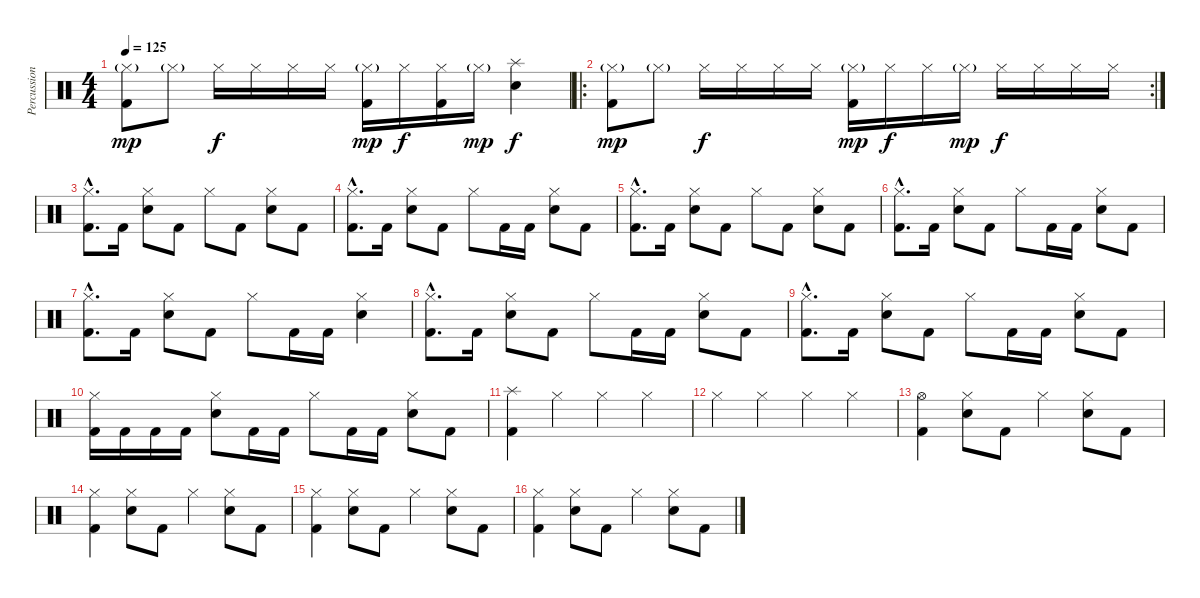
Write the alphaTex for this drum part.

\track ("Percussion" "Percussion") {instrument percussion}
\staff {score}
\articulation defaults
\ts (4 4)
\tempo 125
\clef neutral
\ks c
("Hi-Hat (closed)"{g} "Kick (hit) 2").8{dy mp} "Hi-Hat (closed)"{g}.8 "Hi-Hat (closed)".16{dy f} "Hi-Hat (closed)".16 "Hi-Hat (closed)".16 "Hi-Hat (closed)".16 ("Hi-Hat (closed)"{g} "Kick (hit) 2").16{dy mp} "Hi-Hat (closed)".16{dy f} ("Hi-Hat (closed)" "Kick (hit) 2").16 "Hi-Hat (closed)"{g}.16{dy mp} ("Splash (hit)" "Electric Snare (hit)").4{dy f} |
\ro
\rc 2
("Hi-Hat (closed)"{g} "Kick (hit) 2").8{dy mp} "Hi-Hat (closed)"{g}.8 "Hi-Hat (closed)".16{dy f} "Hi-Hat (closed)".16 "Hi-Hat (closed)".16 "Hi-Hat (closed)".16 ("Hi-Hat (closed)"{g} "Kick (hit) 2").16{dy mp} "Hi-Hat (closed)".16{dy f} "Hi-Hat (closed)".16 "Hi-Hat (closed)"{g}.16{dy mp} "Hi-Hat (closed)".16{dy f} "Hi-Hat (closed)".16 "Hi-Hat (closed)".16 "Hi-Hat (closed)".16 |
("Hi-Hat (closed)"{hac} "Kick (hit) 2"{hac}).8{d} "Kick (hit) 2".16 ("Hi-Hat (closed)" "Electric Snare (hit)").8 "Kick (hit) 2".8 "Hi-Hat (closed)".8 "Kick (hit) 2".8 ("Hi-Hat (closed)" "Electric Snare (hit)").8 "Kick (hit) 2".8 |
("Hi-Hat (closed)"{hac} "Kick (hit) 2"{hac}).8{d} "Kick (hit) 2".16 ("Hi-Hat (closed)" "Electric Snare (hit)").8 "Kick (hit) 2".8 "Hi-Hat (closed)".8 "Kick (hit) 2".16 "Kick (hit) 2".16 ("Hi-Hat (closed)" "Electric Snare (hit)").8 "Kick (hit) 2".8 |
("Hi-Hat (closed)"{hac} "Kick (hit) 2"{hac}).8{d} "Kick (hit) 2".16 ("Hi-Hat (closed)" "Electric Snare (hit)").8 "Kick (hit) 2".8 "Hi-Hat (closed)".8 "Kick (hit) 2".8 ("Hi-Hat (closed)" "Electric Snare (hit)").8 "Kick (hit) 2".8 |
("Hi-Hat (closed)"{hac} "Kick (hit) 2"{hac}).8{d} "Kick (hit) 2".16 ("Hi-Hat (closed)" "Electric Snare (hit)").8 "Kick (hit) 2".8 "Hi-Hat (closed)".8 "Kick (hit) 2".16 "Kick (hit) 2".16 ("Hi-Hat (closed)" "Electric Snare (hit)").8 "Kick (hit) 2".8 |
("Hi-Hat (closed)"{hac} "Kick (hit) 2"{hac}).8{d} "Kick (hit) 2".16 ("Hi-Hat (closed)" "Electric Snare (hit)").8 "Kick (hit) 2".8 "Hi-Hat (closed)".8 "Kick (hit) 2".16 "Kick (hit) 2".16 ("Hi-Hat (closed)" "Electric Snare (hit)").4 |
("Hi-Hat (closed)"{hac} "Kick (hit) 2"{hac}).8{d} "Kick (hit) 2".16 ("Hi-Hat (closed)" "Electric Snare (hit)").8 "Kick (hit) 2".8 "Hi-Hat (closed)".8 "Kick (hit) 2".16 "Kick (hit) 2".16 ("Hi-Hat (closed)" "Electric Snare (hit)").8 "Kick (hit) 2".8 |
("Hi-Hat (closed)"{hac} "Kick (hit) 2"{hac}).8{d} "Kick (hit) 2".16 ("Hi-Hat (closed)" "Electric Snare (hit)").8 "Kick (hit) 2".8 "Hi-Hat (closed)".8 "Kick (hit) 2".16 "Kick (hit) 2".16 ("Hi-Hat (closed)" "Electric Snare (hit)").8 "Kick (hit) 2".8 |
("Hi-Hat (closed)" "Kick (hit) 2").16 "Kick (hit) 2".16 "Kick (hit) 2".16 "Kick (hit) 2".16 ("Hi-Hat (closed)" "Electric Snare (hit)").8 "Kick (hit) 2".16 "Kick (hit) 2".16 "Hi-Hat (closed)".8 "Kick (hit) 2".16 "Kick (hit) 2".16 ("Hi-Hat (closed)" "Electric Snare (hit)").8 "Kick (hit) 2".8 |
("Splash (hit)" "Kick (hit) 2").4 "Hi-Hat (closed)".4 "Hi-Hat (closed)".4 "Hi-Hat (closed)".4 |
"Hi-Hat (closed)".4 "Hi-Hat (closed)".4 "Hi-Hat (closed)".4 "Hi-Hat (closed)".4 |
("Hi-Hat (open)" "Kick (hit) 2").4 ("Hi-Hat (closed)" "Electric Snare (hit)").8 "Kick (hit) 2".8 "Hi-Hat (closed)".4 ("Hi-Hat (closed)" "Electric Snare (hit)").8 "Kick (hit) 2".8 |
("Hi-Hat (closed)" "Kick (hit) 2").4 ("Hi-Hat (closed)" "Electric Snare (hit)").8 "Kick (hit) 2".8 "Hi-Hat (closed)".4 ("Hi-Hat (closed)" "Electric Snare (hit)").8 "Kick (hit) 2".8 |
("Hi-Hat (closed)" "Kick (hit) 2").4 ("Hi-Hat (closed)" "Electric Snare (hit)").8 "Kick (hit) 2".8 "Hi-Hat (closed)".4 ("Hi-Hat (closed)" "Electric Snare (hit)").8 "Kick (hit) 2".8 |
("Hi-Hat (closed)" "Kick (hit) 2").4 ("Hi-Hat (closed)" "Electric Snare (hit)").8 "Kick (hit) 2".8 "Hi-Hat (closed)".4 ("Hi-Hat (closed)" "Electric Snare (hit)").8 "Kick (hit) 2".8
